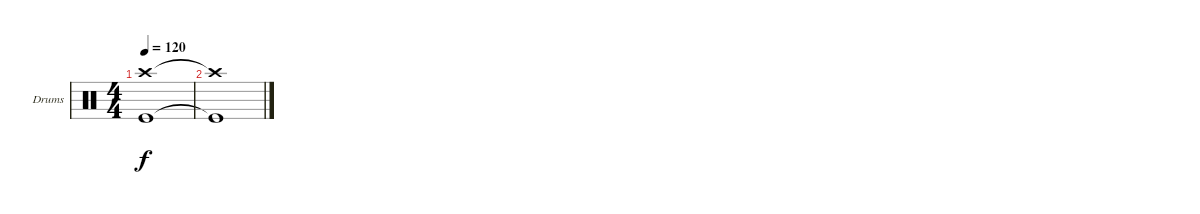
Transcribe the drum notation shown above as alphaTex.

\defaultSystemsLayout 4
\bracketExtendMode groupsimilarinstruments
\firstSystemTrackNameOrientation horizontal
\otherSystemsTrackNameOrientation horizontal
\track ("Drumkit" "Drums") {instrument percussion}
\staff {score}
\articulation defaults
\ts (4 4)
\tempo 120
\clef neutral
\ks c
("Kick (hit)" "Crash high (hit)").1{dy f} |
("Kick (hit)"{t} "Crash high (hit)"{t}).1
